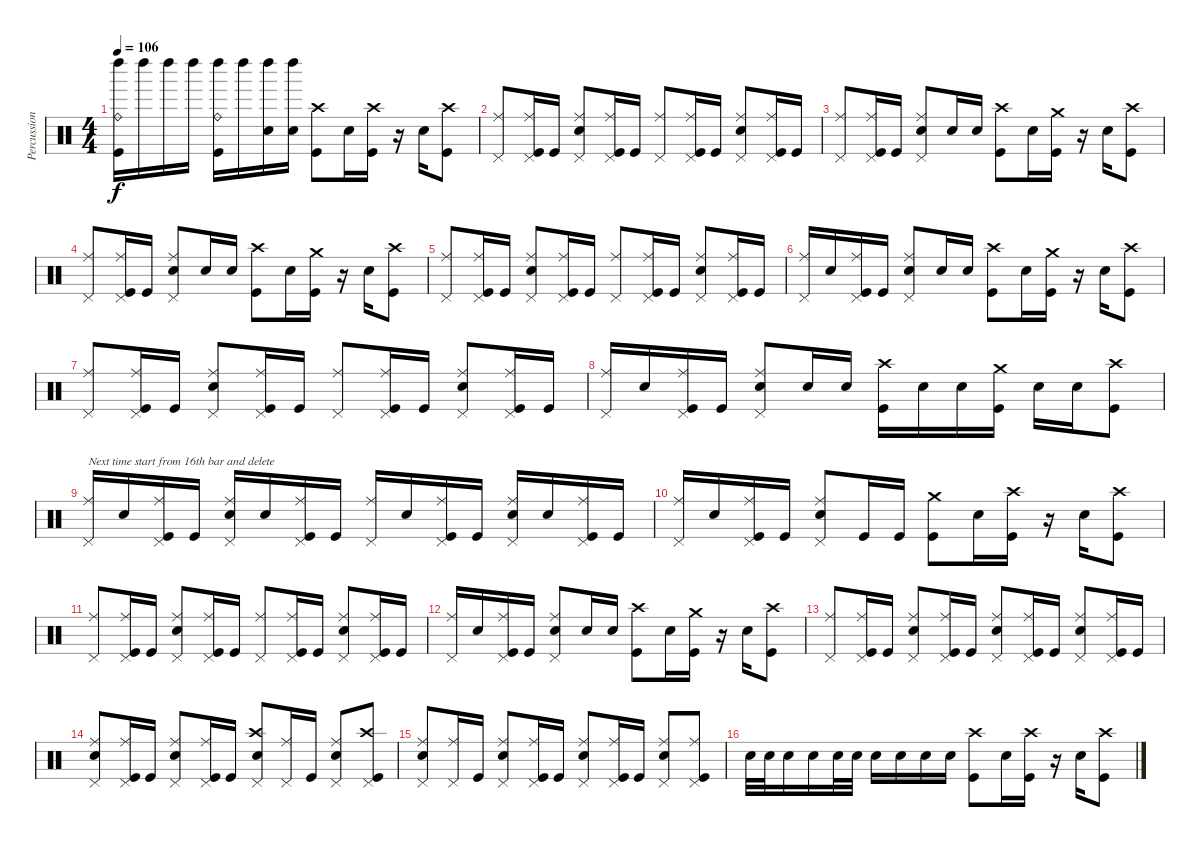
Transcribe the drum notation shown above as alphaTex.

\track ("Percussion" "Percussion") {instrument percussion}
\staff {score}
\articulation defaults
\ts (4 4)
\tempo 106
\clef neutral
\ks c
("Left Maraca (hit)" "Ride (bell)" "Kick (hit)").16{dy f} "Left Maraca (hit)".16 "Left Maraca (hit)".16 "Left Maraca (hit)".16 ("Left Maraca (hit)" "Ride (bell)" "Kick (hit)").16 "Left Maraca (hit)".16 ("Left Maraca (hit)" "Snare (hit) 2").16 ("Left Maraca (hit)" "Snare (hit) 2").16 ("Crash high (hit)" "Kick (hit)").8 "Electric Snare (hit)".16 ("Crash high (hit)" "Kick (hit)").16 r.16 "Electric Snare (hit)".16 ("Kick (hit)" "Crash high (hit)").8 |
("Ride (middle)" "Pedal Hi-Hat (hit)").8 ("Ride (middle)" "Pedal Hi-Hat (hit)" "Kick (hit)").16 "Kick (hit)".16 ("Ride (middle)" "Pedal Hi-Hat (hit)" "Snare (hit) 2").8 ("Ride (middle)" "Pedal Hi-Hat (hit)" "Kick (hit)").16 "Kick (hit)".16 ("Ride (middle)" "Pedal Hi-Hat (hit)").8 ("Ride (middle)" "Pedal Hi-Hat (hit)" "Kick (hit)").16 "Kick (hit)".16 ("Ride (middle)" "Pedal Hi-Hat (hit)" "Snare (hit) 2").8 ("Ride (middle)" "Pedal Hi-Hat (hit)" "Kick (hit)").16 "Kick (hit)".16 |
("Ride (middle)" "Pedal Hi-Hat (hit)").8 ("Pedal Hi-Hat (hit)" "Ride (middle)" "Kick (hit)").16 "Kick (hit)".16 ("Ride (middle)" "Pedal Hi-Hat (hit)" "Snare (hit) 2").8 "Snare (hit) 2".16 "Snare (hit) 2".16 ("Crash high (hit)" "Kick (hit)").8 "Electric Snare (hit)".16 ("Kick (hit)" "Crash medium (hit)").16 r.16 "Electric Snare (hit)".16 ("Kick (hit)" "Crash high (hit)").8 |
("Ride (middle)" "Pedal Hi-Hat (hit)").8 ("Pedal Hi-Hat (hit)" "Ride (middle)" "Kick (hit)").16 "Kick (hit)".16 ("Ride (middle)" "Pedal Hi-Hat (hit)" "Snare (hit) 2").8 "Snare (hit) 2".16 "Snare (hit) 2".16 ("Crash high (hit)" "Kick (hit)").8 "Electric Snare (hit)".16 ("Kick (hit)" "Crash medium (hit)").16 r.16 "Electric Snare (hit)".16 ("Kick (hit)" "Crash high (hit)").8 |
("Ride (middle)" "Pedal Hi-Hat (hit)").8 ("Ride (middle)" "Pedal Hi-Hat (hit)" "Kick (hit)").16 "Kick (hit)".16 ("Ride (middle)" "Pedal Hi-Hat (hit)" "Snare (hit) 2").8 ("Ride (middle)" "Pedal Hi-Hat (hit)" "Kick (hit)").16 "Kick (hit)".16 ("Ride (middle)" "Pedal Hi-Hat (hit)").8 ("Ride (middle)" "Pedal Hi-Hat (hit)" "Kick (hit)").16 "Kick (hit)".16 ("Ride (middle)" "Pedal Hi-Hat (hit)" "Snare (hit) 2").8 ("Ride (middle)" "Pedal Hi-Hat (hit)" "Kick (hit)").16 "Kick (hit)".16 |
("Ride (middle)" "Pedal Hi-Hat (hit)").16 "Snare (hit) 2".16 ("Pedal Hi-Hat (hit)" "Ride (middle)" "Kick (hit)").16 "Kick (hit)".16 ("Ride (middle)" "Pedal Hi-Hat (hit)" "Snare (hit) 2").8 "Snare (hit) 2".16 "Snare (hit) 2".16 ("Crash high (hit)" "Kick (hit)").8 "Electric Snare (hit)".16 ("Kick (hit)" "Crash medium (hit)").16 r.16 "Electric Snare (hit)".16 ("Kick (hit)" "Crash high (hit)").8 |
("Ride (middle)" "Pedal Hi-Hat (hit)").8 ("Ride (middle)" "Pedal Hi-Hat (hit)" "Kick (hit)").16 "Kick (hit)".16 ("Ride (middle)" "Pedal Hi-Hat (hit)" "Snare (hit) 2").8 ("Ride (middle)" "Pedal Hi-Hat (hit)" "Kick (hit)").16 "Kick (hit)".16 ("Ride (middle)" "Pedal Hi-Hat (hit)").8 ("Ride (middle)" "Pedal Hi-Hat (hit)" "Kick (hit)").16 "Kick (hit)".16 ("Ride (middle)" "Pedal Hi-Hat (hit)" "Snare (hit) 2").8 ("Ride (middle)" "Pedal Hi-Hat (hit)" "Kick (hit)").16 "Kick (hit)".16 |
("Ride (middle)" "Pedal Hi-Hat (hit)").16 "Snare (hit) 2".16 ("Pedal Hi-Hat (hit)" "Ride (middle)" "Kick (hit)").16 "Kick (hit)".16 ("Ride (middle)" "Pedal Hi-Hat (hit)" "Snare (hit) 2").8 "Snare (hit) 2".16 "Snare (hit) 2".16 ("Crash high (hit)" "Kick (hit)").16 "Snare (hit) 2".16 "Snare (hit) 2".16 ("Kick (hit)" "Crash medium (hit)").16 "Snare (hit) 2".16 "Snare (hit) 2".16 ("Kick (hit)" "Crash high (hit)").8 |
("Ride (middle)" "Pedal Hi-Hat (hit)").16{txt "Next time start from 16th bar and delete"} "Snare (hit) 2".16 ("Ride (middle)" "Pedal Hi-Hat (hit)" "Kick (hit)").16 "Kick (hit)".16 ("Ride (middle)" "Pedal Hi-Hat (hit)" "Snare (hit) 2").16 "Snare (hit) 2".16 ("Ride (middle)" "Pedal Hi-Hat (hit)" "Kick (hit)").16 "Kick (hit)".16 ("Ride (middle)" "Pedal Hi-Hat (hit)").16 "Snare (hit) 2".16 ("Ride (middle)" "Pedal Hi-Hat (hit)" "Kick (hit)").16 "Kick (hit)".16 ("Ride (middle)" "Pedal Hi-Hat (hit)" "Snare (hit) 2").16 "Snare (hit) 2".16 ("Ride (middle)" "Pedal Hi-Hat (hit)" "Kick (hit)").16 "Kick (hit)".16 |
("Ride (middle)" "Pedal Hi-Hat (hit)").16 "Snare (hit) 2".16 ("Ride (middle)" "Pedal Hi-Hat (hit)" "Kick (hit)").16 "Kick (hit)".16 ("Ride (middle)" "Pedal Hi-Hat (hit)" "Snare (hit) 2").8 "Kick (hit)".16 "Kick (hit)".16 ("Kick (hit)" "Crash medium (hit)").8 "Electric Snare (hit)".16 ("Kick (hit)" "Crash high (hit)").16 r.16 "Electric Snare (hit)".16 ("Kick (hit)" "Crash high (hit)").8 |
("Ride (middle)" "Pedal Hi-Hat (hit)").8 ("Ride (middle)" "Pedal Hi-Hat (hit)" "Kick (hit)").16 "Kick (hit)".16 ("Ride (middle)" "Pedal Hi-Hat (hit)" "Snare (hit) 2").8 ("Ride (middle)" "Pedal Hi-Hat (hit)" "Kick (hit)").16 "Kick (hit)".16 ("Ride (middle)" "Pedal Hi-Hat (hit)").8 ("Ride (middle)" "Pedal Hi-Hat (hit)" "Kick (hit)").16 "Kick (hit)".16 ("Ride (middle)" "Pedal Hi-Hat (hit)" "Snare (hit) 2").8 ("Ride (middle)" "Pedal Hi-Hat (hit)" "Kick (hit)").16 "Kick (hit)".16 |
("Ride (middle)" "Pedal Hi-Hat (hit)").16 "Snare (hit) 2".16 ("Pedal Hi-Hat (hit)" "Ride (middle)" "Kick (hit)").16 "Kick (hit)".16 ("Ride (middle)" "Pedal Hi-Hat (hit)" "Snare (hit) 2").8 "Snare (hit) 2".16 "Snare (hit) 2".16 ("Crash high (hit)" "Kick (hit)").8 "Electric Snare (hit)".16 ("Kick (hit)" "Crash medium (hit)").16 r.16 "Electric Snare (hit)".16 ("Kick (hit)" "Crash high (hit)").8 |
("Ride (middle)" "Pedal Hi-Hat (hit)").8 ("Ride (middle)" "Pedal Hi-Hat (hit)" "Kick (hit)").16 "Kick (hit)".16 ("Ride (middle)" "Pedal Hi-Hat (hit)" "Snare (hit) 2").8 ("Ride (middle)" "Pedal Hi-Hat (hit)" "Kick (hit)").16 "Kick (hit)".16 ("Ride (middle)" "Pedal Hi-Hat (hit)" "Snare (hit) 2").8 ("Ride (middle)" "Pedal Hi-Hat (hit)" "Kick (hit)").16 "Kick (hit)".16 ("Ride (middle)" "Pedal Hi-Hat (hit)" "Snare (hit) 2").8 ("Ride (middle)" "Pedal Hi-Hat (hit)" "Kick (hit)").16 "Kick (hit)".16 |
("Ride (middle)" "Pedal Hi-Hat (hit)" "Snare (hit) 2").8 ("Ride (middle)" "Pedal Hi-Hat (hit)" "Kick (hit)").16 "Kick (hit)".16 ("Ride (middle)" "Pedal Hi-Hat (hit)" "Snare (hit) 2").8 ("Ride (middle)" "Pedal Hi-Hat (hit)" "Kick (hit)").16 "Kick (hit)".16 ("Crash high (hit)" "Pedal Hi-Hat (hit)" "Snare (hit) 2").8 ("Ride (middle)" "Pedal Hi-Hat (hit)").16 "Kick (hit)".16 ("Ride (middle)" "Pedal Hi-Hat (hit)" "Snare (hit) 2").8 ("Crash high (hit)" "Pedal Hi-Hat (hit)" "Kick (hit)").8 |
("Ride (middle)" "Pedal Hi-Hat (hit)" "Snare (hit) 2").8 ("Ride (middle)" "Pedal Hi-Hat (hit)").16 "Kick (hit)".16 ("Ride (middle)" "Pedal Hi-Hat (hit)" "Snare (hit) 2").8 ("Ride (middle)" "Pedal Hi-Hat (hit)" "Kick (hit)").16 "Kick (hit)".16 ("Ride (middle)" "Pedal Hi-Hat (hit)" "Snare (hit) 2").8 ("Ride (middle)" "Pedal Hi-Hat (hit)" "Kick (hit)").16 "Kick (hit)".16 ("Ride (middle)" "Pedal Hi-Hat (hit)" "Snare (hit) 2").8 ("Ride (middle)" "Pedal Hi-Hat (hit)" "Kick (hit)").8 |
"Snare (hit) 2".32 "Snare (hit) 2".32 "Snare (hit) 2".16 "Snare (hit) 2".16 "Snare (hit) 2".32 "Snare (hit) 2".32 "Snare (hit) 2".16 "Snare (hit) 2".16 "Snare (hit) 2".16 "Snare (hit) 2".16 ("Kick (hit)" "Crash high (hit)").8 "Electric Snare (hit)".16 ("Kick (hit)" "Crash high (hit)").16 r.16 "Electric Snare (hit)".16 ("Kick (hit)" "Crash high (hit)").8
